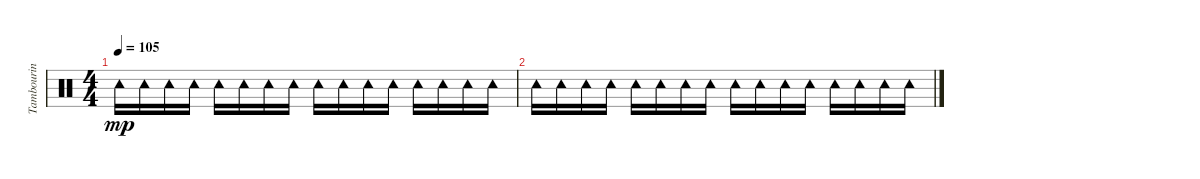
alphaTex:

\track ("Tambourin" "Tambourin") {instrument percussion}
\staff {score}
\articulation defaults
\ts (4 4)
\tempo 105
\clef neutral
\ks c "Tambourine (hit)".16{dy mp} "Tambourine (hit)".16 "Tambourine (hit)".16 "Tambourine (hit)".16 "Tambourine (hit)".16 "Tambourine (hit)".16 "Tambourine (hit)".16 "Tambourine (hit)".16 "Tambourine (hit)".16 "Tambourine (hit)".16 "Tambourine (hit)".16 "Tambourine (hit)".16 "Tambourine (hit)".16 "Tambourine (hit)".16 "Tambourine (hit)".16 "Tambourine (hit)".16
|
"Tambourine (hit)".16 "Tambourine (hit)".16 "Tambourine (hit)".16 "Tambourine (hit)".16 "Tambourine (hit)".16 "Tambourine (hit)".16 "Tambourine (hit)".16 "Tambourine (hit)".16 "Tambourine (hit)".16 "Tambourine (hit)".16 "Tambourine (hit)".16 "Tambourine (hit)".16 "Tambourine (hit)".16 "Tambourine (hit)".16 "Tambourine (hit)".16 "Tambourine (hit)".16
